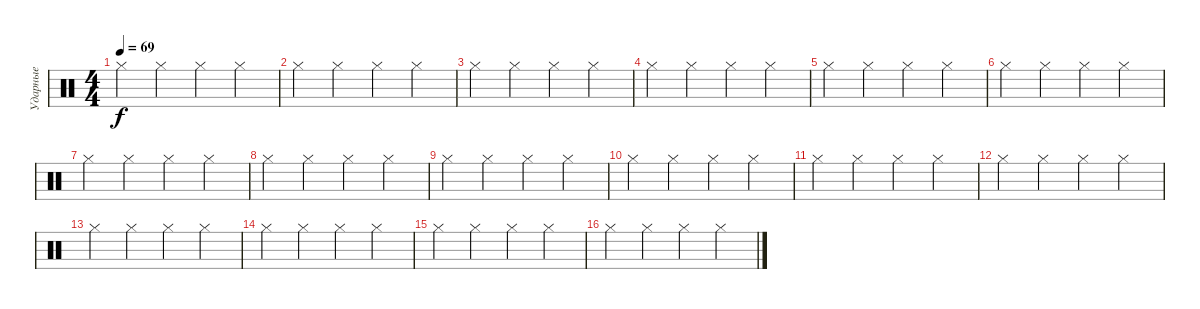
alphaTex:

\track ("Ударные" "Ударные") {instrument percussion}
\staff {score}
\articulation defaults
\ts (4 4)
\tempo 69
\clef neutral
\ks c "Hi-Hat (closed)".4{dy f} "Hi-Hat (closed)".4 "Hi-Hat (closed)".4 "Hi-Hat (closed)".4
|
"Hi-Hat (closed)".4 "Hi-Hat (closed)".4 "Hi-Hat (closed)".4 "Hi-Hat (closed)".4 |
"Hi-Hat (closed)".4 "Hi-Hat (closed)".4 "Hi-Hat (closed)".4 "Hi-Hat (closed)".4 |
"Hi-Hat (closed)".4 "Hi-Hat (closed)".4 "Hi-Hat (closed)".4 "Hi-Hat (closed)".4 |
"Hi-Hat (closed)".4 "Hi-Hat (closed)".4 "Hi-Hat (closed)".4 "Hi-Hat (closed)".4 |
"Hi-Hat (closed)".4 "Hi-Hat (closed)".4 "Hi-Hat (closed)".4 "Hi-Hat (closed)".4 |
"Hi-Hat (closed)".4 "Hi-Hat (closed)".4 "Hi-Hat (closed)".4 "Hi-Hat (closed)".4 |
"Hi-Hat (closed)".4 "Hi-Hat (closed)".4 "Hi-Hat (closed)".4 "Hi-Hat (closed)".4 |
"Hi-Hat (closed)".4 "Hi-Hat (closed)".4 "Hi-Hat (closed)".4 "Hi-Hat (closed)".4 |
"Hi-Hat (closed)".4 "Hi-Hat (closed)".4 "Hi-Hat (closed)".4 "Hi-Hat (closed)".4 |
"Hi-Hat (closed)".4 "Hi-Hat (closed)".4 "Hi-Hat (closed)".4 "Hi-Hat (closed)".4 |
"Hi-Hat (closed)".4 "Hi-Hat (closed)".4 "Hi-Hat (closed)".4 "Hi-Hat (closed)".4 |
"Hi-Hat (closed)".4 "Hi-Hat (closed)".4 "Hi-Hat (closed)".4 "Hi-Hat (closed)".4 |
"Hi-Hat (closed)".4 "Hi-Hat (closed)".4 "Hi-Hat (closed)".4 "Hi-Hat (closed)".4 |
"Hi-Hat (closed)".4 "Hi-Hat (closed)".4 "Hi-Hat (closed)".4 "Hi-Hat (closed)".4 |
"Hi-Hat (closed)".4 "Hi-Hat (closed)".4 "Hi-Hat (closed)".4 "Hi-Hat (closed)".4
